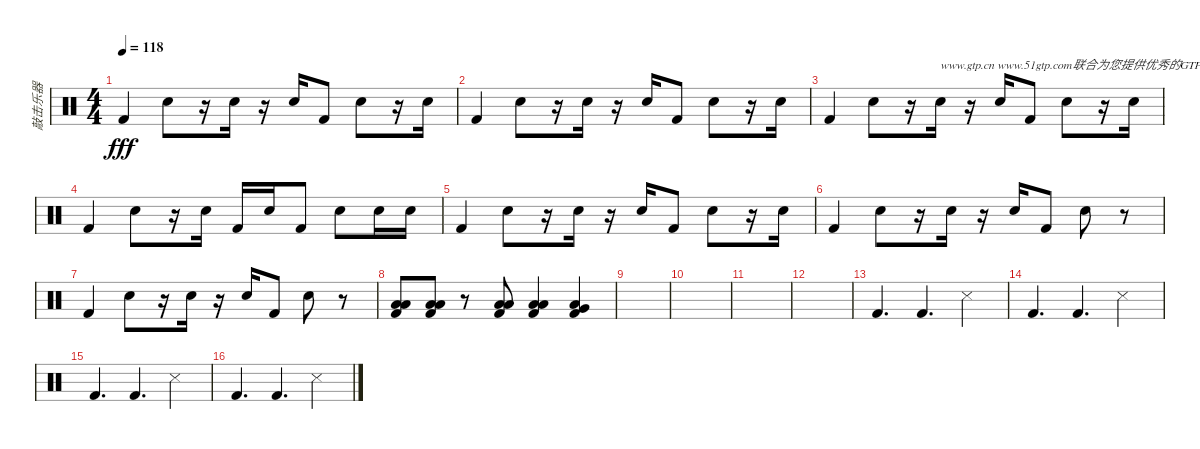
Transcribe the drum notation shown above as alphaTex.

\track ("敲击乐器" "敲击乐器") {instrument percussion}
\staff {score}
\articulation defaults
\ts (4 4)
\tempo 118
\clef neutral
\ks c "Kick (hit) 2".4{dy fff} "Snare (hit) 2".8
r.16 "Snare (hit) 2".16 r.16 "Snare (hit) 2".16 "Kick (hit) 2".8 "Snare (hit) 2".8 r.16 "Snare (hit) 2".16 |
"Kick (hit) 2".4 "Snare (hit) 2".8 r.16 "Snare (hit) 2".16 r.16 "Snare (hit) 2".16 "Kick (hit) 2".8 "Snare (hit) 2".8 r.16 "Snare (hit) 2".16 |
"Kick (hit) 2".4 "Snare (hit) 2".8 r.16 "Snare (hit) 2".16{txt "www.gtp.cn www.51gtp.com联合为您提供优秀的GTP!"} r.16 "Snare (hit) 2".16 "Kick (hit) 2".8 "Snare (hit) 2".8 r.16 "Snare (hit) 2".16 |
"Kick (hit) 2".4 "Snare (hit) 2".8 r.16 "Snare (hit) 2".16 "Kick (hit) 2".16 "Snare (hit) 2".16 "Kick (hit) 2".8 "Snare (hit) 2".8 "Snare (hit) 2".16 "Snare (hit) 2".16 |
"Kick (hit) 2".4 "Snare (hit) 2".8 r.16 "Snare (hit) 2".16 r.16 "Snare (hit) 2".16 "Kick (hit) 2".8 "Snare (hit) 2".8 r.16 "Snare (hit) 2".16 |
"Kick (hit) 2".4 "Snare (hit) 2".8 r.16 "Snare (hit) 2".16 r.16 "Snare (hit) 2".16 "Kick (hit) 2".8 "Snare (hit) 2".8 r.8 |
"Kick (hit) 2".4 "Snare (hit) 2".8 r.16 "Snare (hit) 2".16 r.16 "Snare (hit) 2".16 "Kick (hit) 2".8 "Snare (hit) 2".8 r.8 |
("Low Tom (hit)" "Low Tom (hit)" "Kick (hit) 2").8 ("Low Tom (hit)" "Low Tom (hit)" "Kick (hit) 2").8 r.8 ("Low Tom (hit)" "Low Tom (hit)" "Kick (hit) 2").8 ("Low Tom (hit)" "Low Tom (hit)" "Kick (hit) 2").4 ("Very Low Tom (hit)" "Low Floor Tom (hit)" "Kick (hit) 2").4 |
|
|
|
|
"Kick (hit) 2".4{d} "Kick (hit) 2".4{d} "Snare (side stick) 3".4 |
"Kick (hit) 2".4{d} "Kick (hit) 2".4{d} "Snare (side stick) 3".4 |
"Kick (hit) 2".4{d} "Kick (hit) 2".4{d} "Snare (side stick) 3".4 |
"Kick (hit) 2".4{d} "Kick (hit) 2".4{d} "Snare (side stick) 3".4
